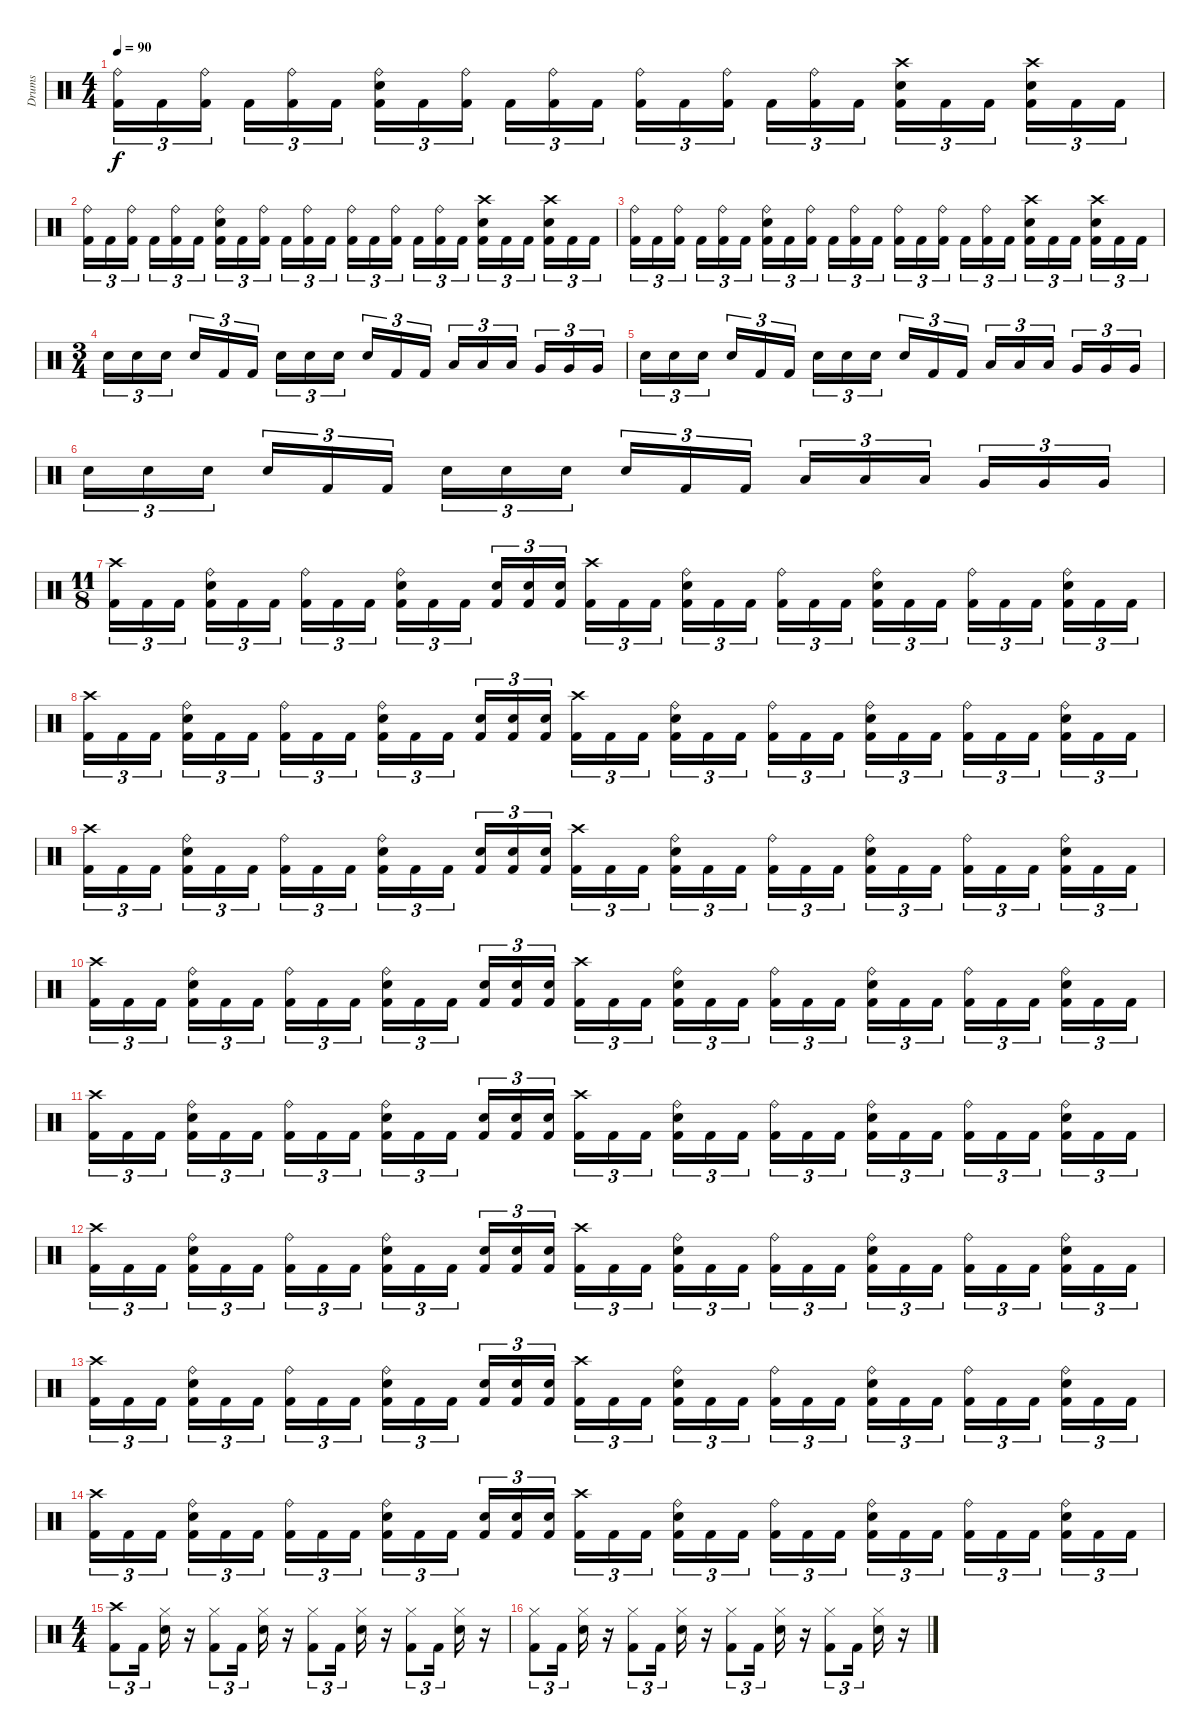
\track ("Drums" "Drums") {instrument percussion}
\staff {score}
\articulation defaults
\ts (4 4)
\tempo 90
\clef neutral
\ks c
("Ride (bell)" "Kick (hit) 2").16{tu (3 2) dy f} "Kick (hit) 2".16{tu (3 2)} ("Ride (bell)" "Kick (hit) 2").16{tu (3 2) beam splitsecondary} "Kick (hit) 2".16{tu (3 2)} ("Ride (bell)" "Kick (hit) 2").16{tu (3 2)} "Kick (hit) 2".16{tu (3 2)} ("Electric Snare (hit)" "Ride (bell)" "Kick (hit) 2").16{tu (3 2)} "Kick (hit) 2".16{tu (3 2)} ("Ride (bell)" "Kick (hit) 2").16{tu (3 2) beam splitsecondary} "Kick (hit) 2".16{tu (3 2)} ("Ride (bell)" "Kick (hit) 2").16{tu (3 2)} "Kick (hit) 2".16{tu (3 2)} ("Ride (bell)" "Kick (hit) 2").16{tu (3 2)} "Kick (hit) 2".16{tu (3 2)} ("Ride (bell)" "Kick (hit) 2").16{tu (3 2) beam splitsecondary} "Kick (hit) 2".16{tu (3 2)} ("Ride (bell)" "Kick (hit) 2").16{tu (3 2)} "Kick (hit) 2".16{tu (3 2)} ("Crash high (hit)" "Electric Snare (hit)" "Kick (hit) 2").16{tu (3 2)} "Kick (hit) 2".16{tu (3 2)} "Kick (hit) 2".16{tu (3 2) beam splitsecondary} ("Electric Snare (hit)" "Crash high (hit)" "Kick (hit) 2").16{tu (3 2)} "Kick (hit) 2".16{tu (3 2)} "Kick (hit) 2".16{tu (3 2)} |
("Ride (bell)" "Kick (hit) 2").16{tu (3 2)} "Kick (hit) 2".16{tu (3 2)} ("Ride (bell)" "Kick (hit) 2").16{tu (3 2) beam splitsecondary} "Kick (hit) 2".16{tu (3 2)} ("Ride (bell)" "Kick (hit) 2").16{tu (3 2)} "Kick (hit) 2".16{tu (3 2)} ("Electric Snare (hit)" "Ride (bell)" "Kick (hit) 2").16{tu (3 2)} "Kick (hit) 2".16{tu (3 2)} ("Ride (bell)" "Kick (hit) 2").16{tu (3 2) beam splitsecondary} "Kick (hit) 2".16{tu (3 2)} ("Ride (bell)" "Kick (hit) 2").16{tu (3 2)} "Kick (hit) 2".16{tu (3 2)} ("Ride (bell)" "Kick (hit) 2").16{tu (3 2)} "Kick (hit) 2".16{tu (3 2)} ("Ride (bell)" "Kick (hit) 2").16{tu (3 2) beam splitsecondary} "Kick (hit) 2".16{tu (3 2)} ("Ride (bell)" "Kick (hit) 2").16{tu (3 2)} "Kick (hit) 2".16{tu (3 2)} ("Crash high (hit)" "Electric Snare (hit)" "Kick (hit) 2").16{tu (3 2)} "Kick (hit) 2".16{tu (3 2)} "Kick (hit) 2".16{tu (3 2) beam splitsecondary} ("Electric Snare (hit)" "Crash high (hit)" "Kick (hit) 2").16{tu (3 2)} "Kick (hit) 2".16{tu (3 2)} "Kick (hit) 2".16{tu (3 2)} |
("Kick (hit) 2" "Ride (bell)").16{tu (3 2)} "Kick (hit) 2".16{tu (3 2)} ("Kick (hit) 2" "Ride (bell)").16{tu (3 2) beam splitsecondary} "Kick (hit) 2".16{tu (3 2)} ("Kick (hit) 2" "Ride (bell)").16{tu (3 2)} "Kick (hit) 2".16{tu (3 2)} ("Kick (hit) 2" "Ride (bell)" "Electric Snare (hit)").16{tu (3 2)} "Kick (hit) 2".16{tu (3 2)} ("Kick (hit) 2" "Ride (bell)").16{tu (3 2) beam splitsecondary} "Kick (hit) 2".16{tu (3 2)} ("Kick (hit) 2" "Ride (bell)").16{tu (3 2)} "Kick (hit) 2".16{tu (3 2)} ("Kick (hit) 2" "Ride (bell)").16{tu (3 2)} "Kick (hit) 2".16{tu (3 2)} ("Kick (hit) 2" "Ride (bell)").16{tu (3 2) beam splitsecondary} "Kick (hit) 2".16{tu (3 2)} ("Kick (hit) 2" "Ride (bell)").16{tu (3 2)} "Kick (hit) 2".16{tu (3 2)} ("Kick (hit) 2" "Electric Snare (hit)" "Crash high (hit)").16{tu (3 2)} "Kick (hit) 2".16{tu (3 2)} "Kick (hit) 2".16{tu (3 2) beam splitsecondary} ("Kick (hit) 2" "Crash high (hit)" "Electric Snare (hit)").16{tu (3 2)} "Kick (hit) 2".16{tu (3 2)} "Kick (hit) 2".16{tu (3 2)} |
\ts (3 4)
"Electric Snare (hit)".16{tu (3 2)} "Electric Snare (hit)".16{tu (3 2)} "Electric Snare (hit)".16{tu (3 2) beam splitsecondary} "Electric Snare (hit)".16{tu (3 2)} "Kick (hit) 2".16{tu (3 2)} "Kick (hit) 2".16{tu (3 2)} "Electric Snare (hit)".16{tu (3 2)} "Electric Snare (hit)".16{tu (3 2)} "Electric Snare (hit)".16{tu (3 2) beam splitsecondary} "Electric Snare (hit)".16{tu (3 2)} "Kick (hit) 2".16{tu (3 2)} "Kick (hit) 2".16{tu (3 2)} "Low Tom (hit)".16{tu (3 2)} "Low Tom (hit)".16{tu (3 2)} "Low Tom (hit)".16{tu (3 2) beam splitsecondary} "Very Low Tom (hit)".16{tu (3 2)} "Very Low Tom (hit)".16{tu (3 2)} "Very Low Tom (hit)".16{tu (3 2)} |
"Electric Snare (hit)".16{tu (3 2)} "Electric Snare (hit)".16{tu (3 2)} "Electric Snare (hit)".16{tu (3 2) beam splitsecondary} "Electric Snare (hit)".16{tu (3 2)} "Kick (hit) 2".16{tu (3 2)} "Kick (hit) 2".16{tu (3 2)} "Electric Snare (hit)".16{tu (3 2)} "Electric Snare (hit)".16{tu (3 2)} "Electric Snare (hit)".16{tu (3 2) beam splitsecondary} "Electric Snare (hit)".16{tu (3 2)} "Kick (hit) 2".16{tu (3 2)} "Kick (hit) 2".16{tu (3 2)} "Low Tom (hit)".16{tu (3 2)} "Low Tom (hit)".16{tu (3 2)} "Low Tom (hit)".16{tu (3 2) beam splitsecondary} "Very Low Tom (hit)".16{tu (3 2)} "Very Low Tom (hit)".16{tu (3 2)} "Very Low Tom (hit)".16{tu (3 2)} |
"Electric Snare (hit)".16{tu (3 2)} "Electric Snare (hit)".16{tu (3 2)} "Electric Snare (hit)".16{tu (3 2) beam splitsecondary} "Electric Snare (hit)".16{tu (3 2)} "Kick (hit) 2".16{tu (3 2)} "Kick (hit) 2".16{tu (3 2)} "Electric Snare (hit)".16{tu (3 2)} "Electric Snare (hit)".16{tu (3 2)} "Electric Snare (hit)".16{tu (3 2) beam splitsecondary} "Electric Snare (hit)".16{tu (3 2)} "Kick (hit) 2".16{tu (3 2)} "Kick (hit) 2".16{tu (3 2)} "Low Tom (hit)".16{tu (3 2)} "Low Tom (hit)".16{tu (3 2)} "Low Tom (hit)".16{tu (3 2) beam splitsecondary} "Very Low Tom (hit)".16{tu (3 2)} "Very Low Tom (hit)".16{tu (3 2)} "Very Low Tom (hit)".16{tu (3 2)} |
\ts (11 8)
("Crash high (hit)" "Kick (hit) 2").16{tu (3 2)} "Kick (hit) 2".16{tu (3 2)} "Kick (hit) 2".16{tu (3 2)} ("Ride (bell)" "Electric Snare (hit)" "Kick (hit) 2").16{tu (3 2)} "Kick (hit) 2".16{tu (3 2)} "Kick (hit) 2".16{tu (3 2)} ("Ride (bell)" "Kick (hit) 2").16{tu (3 2)} "Kick (hit) 2".16{tu (3 2)} "Kick (hit) 2".16{tu (3 2)} ("Ride (bell)" "Electric Snare (hit)" "Kick (hit) 2").16{tu (3 2)} "Kick (hit) 2".16{tu (3 2)} "Kick (hit) 2".16{tu (3 2)} ("Electric Snare (hit)" "Kick (hit) 2").16{tu (3 2)} ("Electric Snare (hit)" "Kick (hit) 2").16{tu (3 2)} ("Electric Snare (hit)" "Kick (hit) 2").16{tu (3 2)} ("Crash high (hit)" "Kick (hit) 2").16{tu (3 2)} "Kick (hit) 2".16{tu (3 2)} "Kick (hit) 2".16{tu (3 2)} ("Electric Snare (hit)" "Ride (bell)" "Kick (hit) 2").16{tu (3 2)} "Kick (hit) 2".16{tu (3 2)} "Kick (hit) 2".16{tu (3 2)} ("Ride (bell)" "Kick (hit) 2").16{tu (3 2)} "Kick (hit) 2".16{tu (3 2)} "Kick (hit) 2".16{tu (3 2)} ("Electric Snare (hit)" "Ride (bell)" "Kick (hit) 2").16{tu (3 2)} "Kick (hit) 2".16{tu (3 2)} "Kick (hit) 2".16{tu (3 2)} ("Ride (bell)" "Kick (hit) 2").16{tu (3 2)} "Kick (hit) 2".16{tu (3 2)} "Kick (hit) 2".16{tu (3 2)} ("Electric Snare (hit)" "Ride (bell)" "Kick (hit) 2").16{tu (3 2)} "Kick (hit) 2".16{tu (3 2)} "Kick (hit) 2".16{tu (3 2)} |
("Kick (hit) 2" "Crash high (hit)").16{tu (3 2)} "Kick (hit) 2".16{tu (3 2)} "Kick (hit) 2".16{tu (3 2)} ("Kick (hit) 2" "Electric Snare (hit)" "Ride (bell)").16{tu (3 2)} "Kick (hit) 2".16{tu (3 2)} "Kick (hit) 2".16{tu (3 2)} ("Kick (hit) 2" "Ride (bell)").16{tu (3 2)} "Kick (hit) 2".16{tu (3 2)} "Kick (hit) 2".16{tu (3 2)} ("Kick (hit) 2" "Electric Snare (hit)" "Ride (bell)").16{tu (3 2)} "Kick (hit) 2".16{tu (3 2)} "Kick (hit) 2".16{tu (3 2)} ("Kick (hit) 2" "Electric Snare (hit)").16{tu (3 2)} ("Kick (hit) 2" "Electric Snare (hit)").16{tu (3 2)} ("Kick (hit) 2" "Electric Snare (hit)").16{tu (3 2)} ("Kick (hit) 2" "Crash high (hit)").16{tu (3 2)} "Kick (hit) 2".16{tu (3 2)} "Kick (hit) 2".16{tu (3 2)} ("Kick (hit) 2" "Ride (bell)" "Electric Snare (hit)").16{tu (3 2)} "Kick (hit) 2".16{tu (3 2)} "Kick (hit) 2".16{tu (3 2)} ("Kick (hit) 2" "Ride (bell)").16{tu (3 2)} "Kick (hit) 2".16{tu (3 2)} "Kick (hit) 2".16{tu (3 2)} ("Kick (hit) 2" "Ride (bell)" "Electric Snare (hit)").16{tu (3 2)} "Kick (hit) 2".16{tu (3 2)} "Kick (hit) 2".16{tu (3 2)} ("Kick (hit) 2" "Ride (bell)").16{tu (3 2)} "Kick (hit) 2".16{tu (3 2)} "Kick (hit) 2".16{tu (3 2)} ("Kick (hit) 2" "Ride (bell)" "Electric Snare (hit)").16{tu (3 2)} "Kick (hit) 2".16{tu (3 2)} "Kick (hit) 2".16{tu (3 2)} |
("Kick (hit) 2" "Crash high (hit)").16{tu (3 2)} "Kick (hit) 2".16{tu (3 2)} "Kick (hit) 2".16{tu (3 2)} ("Kick (hit) 2" "Electric Snare (hit)" "Ride (bell)").16{tu (3 2)} "Kick (hit) 2".16{tu (3 2)} "Kick (hit) 2".16{tu (3 2)} ("Kick (hit) 2" "Ride (bell)").16{tu (3 2)} "Kick (hit) 2".16{tu (3 2)} "Kick (hit) 2".16{tu (3 2)} ("Kick (hit) 2" "Electric Snare (hit)" "Ride (bell)").16{tu (3 2)} "Kick (hit) 2".16{tu (3 2)} "Kick (hit) 2".16{tu (3 2)} ("Kick (hit) 2" "Electric Snare (hit)").16{tu (3 2)} ("Kick (hit) 2" "Electric Snare (hit)").16{tu (3 2)} ("Kick (hit) 2" "Electric Snare (hit)").16{tu (3 2)} ("Kick (hit) 2" "Crash high (hit)").16{tu (3 2)} "Kick (hit) 2".16{tu (3 2)} "Kick (hit) 2".16{tu (3 2)} ("Kick (hit) 2" "Ride (bell)" "Electric Snare (hit)").16{tu (3 2)} "Kick (hit) 2".16{tu (3 2)} "Kick (hit) 2".16{tu (3 2)} ("Kick (hit) 2" "Ride (bell)").16{tu (3 2)} "Kick (hit) 2".16{tu (3 2)} "Kick (hit) 2".16{tu (3 2)} ("Kick (hit) 2" "Ride (bell)" "Electric Snare (hit)").16{tu (3 2)} "Kick (hit) 2".16{tu (3 2)} "Kick (hit) 2".16{tu (3 2)} ("Kick (hit) 2" "Ride (bell)").16{tu (3 2)} "Kick (hit) 2".16{tu (3 2)} "Kick (hit) 2".16{tu (3 2)} ("Kick (hit) 2" "Ride (bell)" "Electric Snare (hit)").16{tu (3 2)} "Kick (hit) 2".16{tu (3 2)} "Kick (hit) 2".16{tu (3 2)} |
("Crash high (hit)" "Kick (hit) 2").16{tu (3 2)} "Kick (hit) 2".16{tu (3 2)} "Kick (hit) 2".16{tu (3 2)} ("Ride (bell)" "Electric Snare (hit)" "Kick (hit) 2").16{tu (3 2)} "Kick (hit) 2".16{tu (3 2)} "Kick (hit) 2".16{tu (3 2)} ("Ride (bell)" "Kick (hit) 2").16{tu (3 2)} "Kick (hit) 2".16{tu (3 2)} "Kick (hit) 2".16{tu (3 2)} ("Ride (bell)" "Electric Snare (hit)" "Kick (hit) 2").16{tu (3 2)} "Kick (hit) 2".16{tu (3 2)} "Kick (hit) 2".16{tu (3 2)} ("Electric Snare (hit)" "Kick (hit) 2").16{tu (3 2)} ("Electric Snare (hit)" "Kick (hit) 2").16{tu (3 2)} ("Electric Snare (hit)" "Kick (hit) 2").16{tu (3 2)} ("Crash high (hit)" "Kick (hit) 2").16{tu (3 2)} "Kick (hit) 2".16{tu (3 2)} "Kick (hit) 2".16{tu (3 2)} ("Electric Snare (hit)" "Ride (bell)" "Kick (hit) 2").16{tu (3 2)} "Kick (hit) 2".16{tu (3 2)} "Kick (hit) 2".16{tu (3 2)} ("Ride (bell)" "Kick (hit) 2").16{tu (3 2)} "Kick (hit) 2".16{tu (3 2)} "Kick (hit) 2".16{tu (3 2)} ("Electric Snare (hit)" "Ride (bell)" "Kick (hit) 2").16{tu (3 2)} "Kick (hit) 2".16{tu (3 2)} "Kick (hit) 2".16{tu (3 2)} ("Ride (bell)" "Kick (hit) 2").16{tu (3 2)} "Kick (hit) 2".16{tu (3 2)} "Kick (hit) 2".16{tu (3 2)} ("Electric Snare (hit)" "Ride (bell)" "Kick (hit) 2").16{tu (3 2)} "Kick (hit) 2".16{tu (3 2)} "Kick (hit) 2".16{tu (3 2)} |
("Kick (hit) 2" "Crash high (hit)").16{tu (3 2)} "Kick (hit) 2".16{tu (3 2)} "Kick (hit) 2".16{tu (3 2)} ("Kick (hit) 2" "Electric Snare (hit)" "Ride (bell)").16{tu (3 2)} "Kick (hit) 2".16{tu (3 2)} "Kick (hit) 2".16{tu (3 2)} ("Kick (hit) 2" "Ride (bell)").16{tu (3 2)} "Kick (hit) 2".16{tu (3 2)} "Kick (hit) 2".16{tu (3 2)} ("Kick (hit) 2" "Electric Snare (hit)" "Ride (bell)").16{tu (3 2)} "Kick (hit) 2".16{tu (3 2)} "Kick (hit) 2".16{tu (3 2)} ("Kick (hit) 2" "Electric Snare (hit)").16{tu (3 2)} ("Kick (hit) 2" "Electric Snare (hit)").16{tu (3 2)} ("Kick (hit) 2" "Electric Snare (hit)").16{tu (3 2)} ("Kick (hit) 2" "Crash high (hit)").16{tu (3 2)} "Kick (hit) 2".16{tu (3 2)} "Kick (hit) 2".16{tu (3 2)} ("Kick (hit) 2" "Ride (bell)" "Electric Snare (hit)").16{tu (3 2)} "Kick (hit) 2".16{tu (3 2)} "Kick (hit) 2".16{tu (3 2)} ("Kick (hit) 2" "Ride (bell)").16{tu (3 2)} "Kick (hit) 2".16{tu (3 2)} "Kick (hit) 2".16{tu (3 2)} ("Kick (hit) 2" "Ride (bell)" "Electric Snare (hit)").16{tu (3 2)} "Kick (hit) 2".16{tu (3 2)} "Kick (hit) 2".16{tu (3 2)} ("Kick (hit) 2" "Ride (bell)").16{tu (3 2)} "Kick (hit) 2".16{tu (3 2)} "Kick (hit) 2".16{tu (3 2)} ("Kick (hit) 2" "Ride (bell)" "Electric Snare (hit)").16{tu (3 2)} "Kick (hit) 2".16{tu (3 2)} "Kick (hit) 2".16{tu (3 2)} |
("Crash high (hit)" "Kick (hit) 2").16{tu (3 2)} "Kick (hit) 2".16{tu (3 2)} "Kick (hit) 2".16{tu (3 2)} ("Ride (bell)" "Electric Snare (hit)" "Kick (hit) 2").16{tu (3 2)} "Kick (hit) 2".16{tu (3 2)} "Kick (hit) 2".16{tu (3 2)} ("Ride (bell)" "Kick (hit) 2").16{tu (3 2)} "Kick (hit) 2".16{tu (3 2)} "Kick (hit) 2".16{tu (3 2)} ("Ride (bell)" "Electric Snare (hit)" "Kick (hit) 2").16{tu (3 2)} "Kick (hit) 2".16{tu (3 2)} "Kick (hit) 2".16{tu (3 2)} ("Electric Snare (hit)" "Kick (hit) 2").16{tu (3 2)} ("Electric Snare (hit)" "Kick (hit) 2").16{tu (3 2)} ("Electric Snare (hit)" "Kick (hit) 2").16{tu (3 2)} ("Crash high (hit)" "Kick (hit) 2").16{tu (3 2)} "Kick (hit) 2".16{tu (3 2)} "Kick (hit) 2".16{tu (3 2)} ("Electric Snare (hit)" "Ride (bell)" "Kick (hit) 2").16{tu (3 2)} "Kick (hit) 2".16{tu (3 2)} "Kick (hit) 2".16{tu (3 2)} ("Ride (bell)" "Kick (hit) 2").16{tu (3 2)} "Kick (hit) 2".16{tu (3 2)} "Kick (hit) 2".16{tu (3 2)} ("Electric Snare (hit)" "Ride (bell)" "Kick (hit) 2").16{tu (3 2)} "Kick (hit) 2".16{tu (3 2)} "Kick (hit) 2".16{tu (3 2)} ("Ride (bell)" "Kick (hit) 2").16{tu (3 2)} "Kick (hit) 2".16{tu (3 2)} "Kick (hit) 2".16{tu (3 2)} ("Electric Snare (hit)" "Ride (bell)" "Kick (hit) 2").16{tu (3 2)} "Kick (hit) 2".16{tu (3 2)} "Kick (hit) 2".16{tu (3 2)} |
("Crash high (hit)" "Kick (hit) 2").16{tu (3 2)} "Kick (hit) 2".16{tu (3 2)} "Kick (hit) 2".16{tu (3 2)} ("Ride (bell)" "Electric Snare (hit)" "Kick (hit) 2").16{tu (3 2)} "Kick (hit) 2".16{tu (3 2)} "Kick (hit) 2".16{tu (3 2)} ("Ride (bell)" "Kick (hit) 2").16{tu (3 2)} "Kick (hit) 2".16{tu (3 2)} "Kick (hit) 2".16{tu (3 2)} ("Ride (bell)" "Electric Snare (hit)" "Kick (hit) 2").16{tu (3 2)} "Kick (hit) 2".16{tu (3 2)} "Kick (hit) 2".16{tu (3 2)} ("Electric Snare (hit)" "Kick (hit) 2").16{tu (3 2)} ("Electric Snare (hit)" "Kick (hit) 2").16{tu (3 2)} ("Electric Snare (hit)" "Kick (hit) 2").16{tu (3 2)} ("Crash high (hit)" "Kick (hit) 2").16{tu (3 2)} "Kick (hit) 2".16{tu (3 2)} "Kick (hit) 2".16{tu (3 2)} ("Electric Snare (hit)" "Ride (bell)" "Kick (hit) 2").16{tu (3 2)} "Kick (hit) 2".16{tu (3 2)} "Kick (hit) 2".16{tu (3 2)} ("Ride (bell)" "Kick (hit) 2").16{tu (3 2)} "Kick (hit) 2".16{tu (3 2)} "Kick (hit) 2".16{tu (3 2)} ("Electric Snare (hit)" "Ride (bell)" "Kick (hit) 2").16{tu (3 2)} "Kick (hit) 2".16{tu (3 2)} "Kick (hit) 2".16{tu (3 2)} ("Ride (bell)" "Kick (hit) 2").16{tu (3 2)} "Kick (hit) 2".16{tu (3 2)} "Kick (hit) 2".16{tu (3 2)} ("Electric Snare (hit)" "Ride (bell)" "Kick (hit) 2").16{tu (3 2)} "Kick (hit) 2".16{tu (3 2)} "Kick (hit) 2".16{tu (3 2)} |
("Kick (hit) 2" "Crash high (hit)").16{tu (3 2)} "Kick (hit) 2".16{tu (3 2)} "Kick (hit) 2".16{tu (3 2)} ("Kick (hit) 2" "Electric Snare (hit)" "Ride (bell)").16{tu (3 2)} "Kick (hit) 2".16{tu (3 2)} "Kick (hit) 2".16{tu (3 2)} ("Kick (hit) 2" "Ride (bell)").16{tu (3 2)} "Kick (hit) 2".16{tu (3 2)} "Kick (hit) 2".16{tu (3 2)} ("Kick (hit) 2" "Electric Snare (hit)" "Ride (bell)").16{tu (3 2)} "Kick (hit) 2".16{tu (3 2)} "Kick (hit) 2".16{tu (3 2)} ("Kick (hit) 2" "Electric Snare (hit)").16{tu (3 2)} ("Kick (hit) 2" "Electric Snare (hit)").16{tu (3 2)} ("Kick (hit) 2" "Electric Snare (hit)").16{tu (3 2)} ("Kick (hit) 2" "Crash high (hit)").16{tu (3 2)} "Kick (hit) 2".16{tu (3 2)} "Kick (hit) 2".16{tu (3 2)} ("Kick (hit) 2" "Ride (bell)" "Electric Snare (hit)").16{tu (3 2)} "Kick (hit) 2".16{tu (3 2)} "Kick (hit) 2".16{tu (3 2)} ("Kick (hit) 2" "Ride (bell)").16{tu (3 2)} "Kick (hit) 2".16{tu (3 2)} "Kick (hit) 2".16{tu (3 2)} ("Kick (hit) 2" "Ride (bell)" "Electric Snare (hit)").16{tu (3 2)} "Kick (hit) 2".16{tu (3 2)} "Kick (hit) 2".16{tu (3 2)} ("Kick (hit) 2" "Ride (bell)").16{tu (3 2)} "Kick (hit) 2".16{tu (3 2)} "Kick (hit) 2".16{tu (3 2)} ("Kick (hit) 2" "Ride (bell)" "Electric Snare (hit)").16{tu (3 2)} "Kick (hit) 2".16{tu (3 2)} "Kick (hit) 2".16{tu (3 2)} |
\ts (4 4)
("Crash high (hit)" "Kick (hit) 2").8{tu (3 2)} "Kick (hit) 2".16{tu (3 2)} ("Hi-Hat (closed)" "Electric Snare (hit)").16 r.16 ("Hi-Hat (closed)" "Kick (hit) 2").8{tu (3 2)} "Kick (hit) 2".16{tu (3 2)} ("Hi-Hat (closed)" "Electric Snare (hit)").16 r.16 ("Hi-Hat (closed)" "Kick (hit) 2").8{tu (3 2)} "Kick (hit) 2".16{tu (3 2)} ("Hi-Hat (closed)" "Electric Snare (hit)").16 r.16 ("Hi-Hat (closed)" "Kick (hit) 2").8{tu (3 2)} "Kick (hit) 2".16{tu (3 2)} ("Hi-Hat (closed)" "Electric Snare (hit)").16 r.16 |
("Kick (hit) 2" "Hi-Hat (closed)").8{tu (3 2)} "Kick (hit) 2".16{tu (3 2)} ("Electric Snare (hit)" "Hi-Hat (closed)").16 r.16 ("Kick (hit) 2" "Hi-Hat (closed)").8{tu (3 2)} "Kick (hit) 2".16{tu (3 2)} ("Electric Snare (hit)" "Hi-Hat (closed)").16 r.16 ("Kick (hit) 2" "Hi-Hat (closed)").8{tu (3 2)} "Kick (hit) 2".16{tu (3 2)} ("Electric Snare (hit)" "Hi-Hat (closed)").16 r.16 ("Kick (hit) 2" "Hi-Hat (closed)").8{tu (3 2)} "Kick (hit) 2".16{tu (3 2)} ("Electric Snare (hit)" "Hi-Hat (closed)").16 r.16
